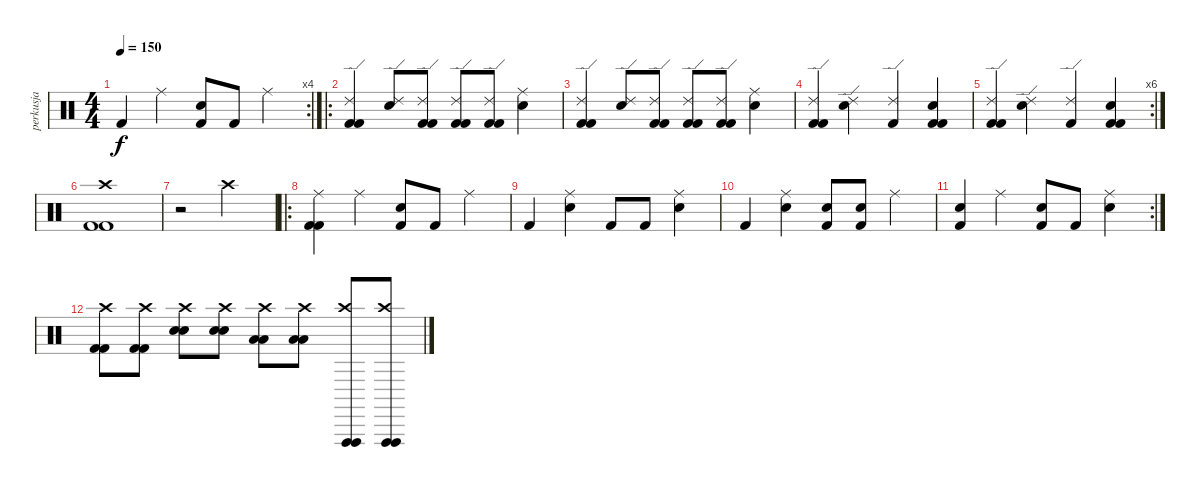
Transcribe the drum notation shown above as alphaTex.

\track ("perkusja" "perkusja") {instrument percussion}
\staff {score}
\articulation defaults
\rc 4
\ts (4 4)
\tempo 150
\clef neutral
\ks c "Kick (hit) 2".4{dy f} "Ride (middle)".4
("Electric Snare (hit)" "Kick (hit) 2").8 "Kick (hit) 2".8 "Ride (middle)".4 |
\ro
("Kick (hit) 2" "Ride (edge) 2" "Kick (hit) 2").4 ("Ride (edge) 2" "Electric Snare (hit)").8 ("Kick (hit) 2" "Ride (edge) 2" "Kick (hit) 2").8 ("Kick (hit) 2" "Ride (edge) 2" "Kick (hit) 2").8 ("Kick (hit) 2" "Ride (edge) 2" "Kick (hit) 2").8 ("Ride (middle)" "Electric Snare (hit)").4 |
("Kick (hit) 2" "Ride (edge) 2" "Kick (hit) 2").4 ("Ride (edge) 2" "Electric Snare (hit)").8 ("Kick (hit) 2" "Ride (edge) 2" "Kick (hit) 2").8 ("Kick (hit) 2" "Ride (edge) 2" "Kick (hit) 2").8 ("Kick (hit) 2" "Ride (edge) 2" "Kick (hit) 2").8 ("Ride (middle)" "Electric Snare (hit)").4 |
("Kick (hit) 2" "Ride (edge) 2" "Kick (hit) 2").4 ("Ride (edge) 2" "Electric Snare (hit)").4 ("Kick (hit) 2" "Ride (edge) 2").4 ("Kick (hit) 2" "Electric Snare (hit)" "Kick (hit) 2").4 |
\rc 6
("Kick (hit) 2" "Ride (edge) 2" "Kick (hit) 2").4 ("Ride (edge) 2" "Electric Snare (hit)").4 ("Kick (hit) 2" "Ride (edge) 2").4 ("Kick (hit) 2" "Electric Snare (hit)" "Kick (hit) 2").4 |
("Kick (hit) 2" "Crash high (hit)" "Kick (hit) 2").1 |
r.2 "Crash high (hit)".2 |
\ro
("Ride (middle)" "Kick (hit) 2" "Kick (hit) 2").4 "Ride (middle)".4 ("Electric Snare (hit)" "Kick (hit) 2").8 "Kick (hit) 2".8 "Ride (middle)".4 |
"Kick (hit) 2".4 ("Ride (middle)" "Electric Snare (hit)").4 "Kick (hit) 2".8 "Kick (hit) 2".8 ("Ride (middle)" "Electric Snare (hit)").4 |
"Kick (hit) 2".4 ("Ride (middle)" "Electric Snare (hit)").4 ("Electric Snare (hit)" "Kick (hit) 2").8 ("Kick (hit) 2" "Electric Snare (hit)").8 "Ride (middle)".4 |
\rc 2
("Electric Snare (hit)" "Kick (hit) 2").4 "Ride (middle)".4 ("Electric Snare (hit)" "Kick (hit) 2").8 "Kick (hit) 2".8 ("Electric Snare (hit)" "Ride (middle)").4 |
("Kick (hit) 2" "Kick (hit) 2" "Crash high (hit)").8 ("Kick (hit) 2" "Kick (hit) 2" "Crash high (hit)").8 ("Electric Snare (hit)" "Electric Snare (hit)" "Crash high (hit)").8 ("Electric Snare (hit)" "Electric Snare (hit)" "Crash high (hit)").8 ("Low Tom (hit)" "Low Tom (hit)" "Crash high (hit)").8 ("Low Tom (hit)" "Low Tom (hit)" "Crash high (hit)").8 ("Vibraslap (hit)" "Vibraslap (hit)" "Crash high (hit)").8 ("Vibraslap (hit)" "Vibraslap (hit)" "Crash high (hit)").8
